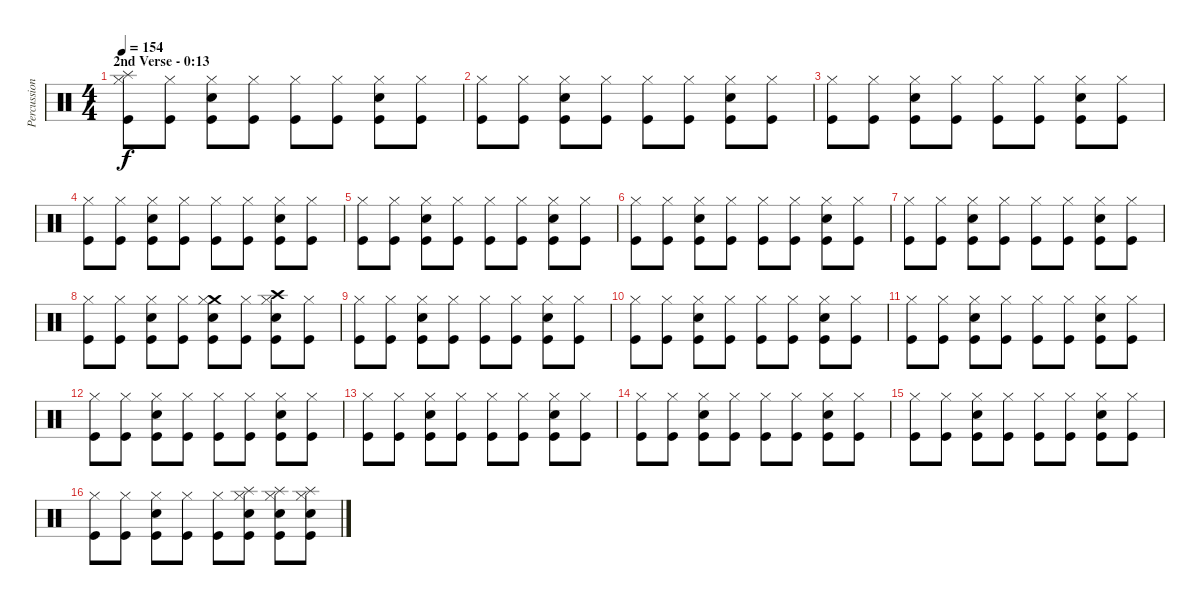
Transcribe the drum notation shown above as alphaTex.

\track ("Percussioni" "Percussion") {instrument percussion}
\staff {score}
\articulation defaults
\ts (4 4)
\section ("" "2nd Verse - 0:13")
\tempo 154
\clef neutral
\ks c
("Splash (hit)" "Hi-Hat (closed)" "Kick (hit)").8{dy f} ("Hi-Hat (closed)" "Kick (hit)").8 ("Hi-Hat (closed)" "Electric Snare (hit)" "Kick (hit)").8 ("Hi-Hat (closed)" "Kick (hit)").8 ("Hi-Hat (closed)" "Kick (hit)").8 ("Hi-Hat (closed)" "Kick (hit)").8 ("Hi-Hat (closed)" "Electric Snare (hit)" "Kick (hit)").8 ("Hi-Hat (closed)" "Kick (hit)").8 |
("Hi-Hat (closed)" "Kick (hit)").8 ("Hi-Hat (closed)" "Kick (hit)").8 ("Hi-Hat (closed)" "Electric Snare (hit)" "Kick (hit)").8 ("Hi-Hat (closed)" "Kick (hit)").8 ("Hi-Hat (closed)" "Kick (hit)").8 ("Hi-Hat (closed)" "Kick (hit)").8 ("Hi-Hat (closed)" "Electric Snare (hit)" "Kick (hit)").8 ("Hi-Hat (closed)" "Kick (hit)").8 |
("Hi-Hat (closed)" "Kick (hit)").8 ("Hi-Hat (closed)" "Kick (hit)").8 ("Hi-Hat (closed)" "Electric Snare (hit)" "Kick (hit)").8 ("Hi-Hat (closed)" "Kick (hit)").8 ("Hi-Hat (closed)" "Kick (hit)").8 ("Hi-Hat (closed)" "Kick (hit)").8 ("Hi-Hat (closed)" "Electric Snare (hit)" "Kick (hit)").8 ("Hi-Hat (closed)" "Kick (hit)").8 |
("Hi-Hat (closed)" "Kick (hit)").8 ("Hi-Hat (closed)" "Kick (hit)").8 ("Hi-Hat (closed)" "Electric Snare (hit)" "Kick (hit)").8 ("Hi-Hat (closed)" "Kick (hit)").8 ("Hi-Hat (closed)" "Kick (hit)").8 ("Hi-Hat (closed)" "Kick (hit)").8 ("Hi-Hat (closed)" "Electric Snare (hit)" "Kick (hit)").8 ("Hi-Hat (closed)" "Kick (hit)").8 |
("Hi-Hat (closed)" "Kick (hit)").8 ("Hi-Hat (closed)" "Kick (hit)").8 ("Hi-Hat (closed)" "Electric Snare (hit)" "Kick (hit)").8 ("Hi-Hat (closed)" "Kick (hit)").8 ("Hi-Hat (closed)" "Kick (hit)").8 ("Hi-Hat (closed)" "Kick (hit)").8 ("Hi-Hat (closed)" "Electric Snare (hit)" "Kick (hit)").8 ("Hi-Hat (closed)" "Kick (hit)").8 |
("Hi-Hat (closed)" "Kick (hit)").8 ("Hi-Hat (closed)" "Kick (hit)").8 ("Hi-Hat (closed)" "Electric Snare (hit)" "Kick (hit)").8 ("Hi-Hat (closed)" "Kick (hit)").8 ("Hi-Hat (closed)" "Kick (hit)").8 ("Hi-Hat (closed)" "Kick (hit)").8 ("Hi-Hat (closed)" "Electric Snare (hit)" "Kick (hit)").8 ("Hi-Hat (closed)" "Kick (hit)").8 |
("Hi-Hat (closed)" "Kick (hit)").8 ("Hi-Hat (closed)" "Kick (hit)").8 ("Hi-Hat (closed)" "Electric Snare (hit)" "Kick (hit)").8 ("Hi-Hat (closed)" "Kick (hit)").8 ("Hi-Hat (closed)" "Kick (hit)").8 ("Hi-Hat (closed)" "Kick (hit)").8 ("Hi-Hat (closed)" "Electric Snare (hit)" "Kick (hit)").8 ("Hi-Hat (closed)" "Kick (hit)").8 |
("Hi-Hat (closed)" "Kick (hit)").8 ("Hi-Hat (closed)" "Kick (hit)").8 ("Hi-Hat (closed)" "Electric Snare (hit)" "Kick (hit)").8 ("Hi-Hat (closed)" "Kick (hit)").8 ("Crash medium (hit)" "Hi-Hat (closed)" "Electric Snare (hit)" "Kick (hit)").8 ("Hi-Hat (closed)" "Kick (hit)").8 ("Crash high (hit)" "Hi-Hat (closed)" "Electric Snare (hit)" "Kick (hit)").8 ("Hi-Hat (closed)" "Kick (hit)").8 |
("Hi-Hat (closed)" "Kick (hit)").8 ("Hi-Hat (closed)" "Kick (hit)").8 ("Hi-Hat (closed)" "Electric Snare (hit)" "Kick (hit)").8 ("Hi-Hat (closed)" "Kick (hit)").8 ("Hi-Hat (closed)" "Kick (hit)").8 ("Hi-Hat (closed)" "Kick (hit)").8 ("Hi-Hat (closed)" "Electric Snare (hit)" "Kick (hit)").8 ("Hi-Hat (closed)" "Kick (hit)").8 |
("Hi-Hat (closed)" "Kick (hit)").8 ("Hi-Hat (closed)" "Kick (hit)").8 ("Hi-Hat (closed)" "Electric Snare (hit)" "Kick (hit)").8 ("Hi-Hat (closed)" "Kick (hit)").8 ("Hi-Hat (closed)" "Kick (hit)").8 ("Hi-Hat (closed)" "Kick (hit)").8 ("Hi-Hat (closed)" "Electric Snare (hit)" "Kick (hit)").8 ("Hi-Hat (closed)" "Kick (hit)").8 |
("Hi-Hat (closed)" "Kick (hit)").8 ("Hi-Hat (closed)" "Kick (hit)").8 ("Hi-Hat (closed)" "Electric Snare (hit)" "Kick (hit)").8 ("Hi-Hat (closed)" "Kick (hit)").8 ("Hi-Hat (closed)" "Kick (hit)").8 ("Hi-Hat (closed)" "Kick (hit)").8 ("Hi-Hat (closed)" "Electric Snare (hit)" "Kick (hit)").8 ("Hi-Hat (closed)" "Kick (hit)").8 |
("Hi-Hat (closed)" "Kick (hit)").8 ("Hi-Hat (closed)" "Kick (hit)").8 ("Hi-Hat (closed)" "Electric Snare (hit)" "Kick (hit)").8 ("Hi-Hat (closed)" "Kick (hit)").8 ("Hi-Hat (closed)" "Kick (hit)").8 ("Hi-Hat (closed)" "Kick (hit)").8 ("Hi-Hat (closed)" "Electric Snare (hit)" "Kick (hit)").8 ("Hi-Hat (closed)" "Kick (hit)").8 |
("Hi-Hat (closed)" "Kick (hit)").8 ("Hi-Hat (closed)" "Kick (hit)").8 ("Hi-Hat (closed)" "Electric Snare (hit)" "Kick (hit)").8 ("Hi-Hat (closed)" "Kick (hit)").8 ("Hi-Hat (closed)" "Kick (hit)").8 ("Hi-Hat (closed)" "Kick (hit)").8 ("Hi-Hat (closed)" "Electric Snare (hit)" "Kick (hit)").8 ("Hi-Hat (closed)" "Kick (hit)").8 |
("Hi-Hat (closed)" "Kick (hit)").8 ("Hi-Hat (closed)" "Kick (hit)").8 ("Hi-Hat (closed)" "Electric Snare (hit)" "Kick (hit)").8 ("Hi-Hat (closed)" "Kick (hit)").8 ("Hi-Hat (closed)" "Kick (hit)").8 ("Hi-Hat (closed)" "Kick (hit)").8 ("Hi-Hat (closed)" "Electric Snare (hit)" "Kick (hit)").8 ("Hi-Hat (closed)" "Kick (hit)").8 |
("Hi-Hat (closed)" "Kick (hit)").8 ("Hi-Hat (closed)" "Kick (hit)").8 ("Hi-Hat (closed)" "Electric Snare (hit)" "Kick (hit)").8 ("Hi-Hat (closed)" "Kick (hit)").8 ("Hi-Hat (closed)" "Kick (hit)").8 ("Hi-Hat (closed)" "Kick (hit)").8 ("Hi-Hat (closed)" "Electric Snare (hit)" "Kick (hit)").8 ("Hi-Hat (closed)" "Kick (hit)").8 |
("Hi-Hat (closed)" "Kick (hit)").8 ("Hi-Hat (closed)" "Kick (hit)").8 ("Hi-Hat (closed)" "Electric Snare (hit)" "Kick (hit)").8 ("Hi-Hat (closed)" "Kick (hit)").8 ("Hi-Hat (closed)" "Kick (hit)").8 ("Splash (hit)" "Hi-Hat (closed)" "Electric Snare (hit)" "Kick (hit)").8 ("Splash (hit)" "Hi-Hat (closed)" "Electric Snare (hit)" "Kick (hit)").8 ("Splash (hit)" "Hi-Hat (closed)" "Electric Snare (hit)" "Kick (hit)").8
